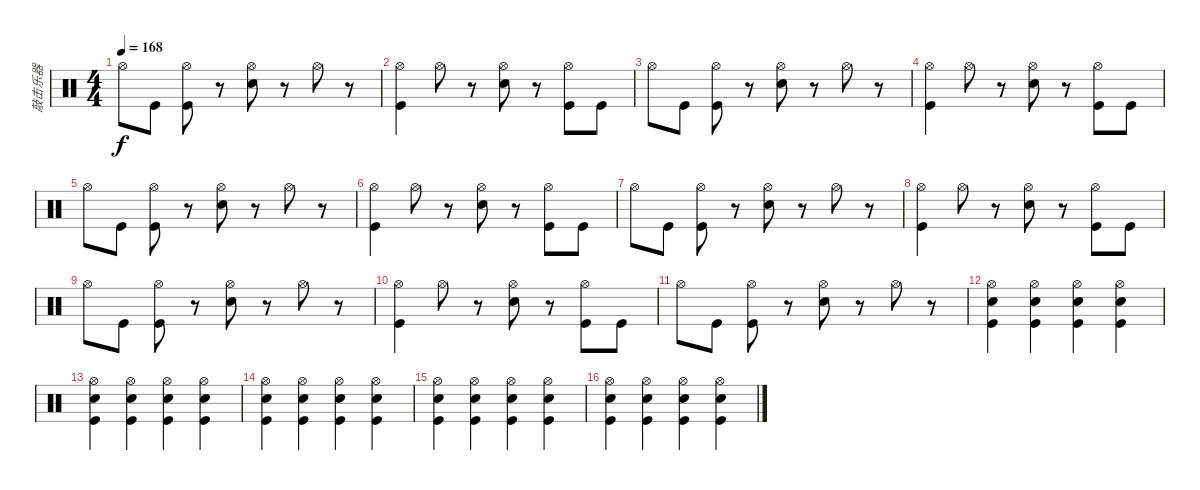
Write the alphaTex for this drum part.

\track ("敲击乐器" "敲击乐器") {instrument percussion}
\staff {score}
\articulation defaults
\ts (4 4)
\tempo 168
\clef neutral
\ks c "Hi-Hat (open)".8{dy f} "Kick (hit)".8
("Hi-Hat (open)" "Kick (hit)").8 r.8 ("Hi-Hat (open)" "Snare (hit) 2").8 r.8 "Hi-Hat (open)".8 r.8 |
("Hi-Hat (open)" "Kick (hit)").4 "Hi-Hat (open)".8 r.8 ("Hi-Hat (open)" "Snare (hit) 2").8 r.8 ("Hi-Hat (open)" "Kick (hit)").8 "Kick (hit)".8 |
"Hi-Hat (open)".8 "Kick (hit)".8 ("Hi-Hat (open)" "Kick (hit)").8 r.8 ("Hi-Hat (open)" "Snare (hit) 2").8 r.8 "Hi-Hat (open)".8 r.8 |
("Hi-Hat (open)" "Kick (hit)").4 "Hi-Hat (open)".8 r.8 ("Hi-Hat (open)" "Snare (hit) 2").8 r.8 ("Hi-Hat (open)" "Kick (hit)").8 "Kick (hit)".8 |
"Hi-Hat (open)".8 "Kick (hit)".8 ("Hi-Hat (open)" "Kick (hit)").8 r.8 ("Hi-Hat (open)" "Snare (hit) 2").8 r.8 "Hi-Hat (open)".8 r.8 |
("Hi-Hat (open)" "Kick (hit)").4 "Hi-Hat (open)".8 r.8 ("Hi-Hat (open)" "Snare (hit) 2").8 r.8 ("Hi-Hat (open)" "Kick (hit)").8 "Kick (hit)".8 |
"Hi-Hat (open)".8 "Kick (hit)".8 ("Hi-Hat (open)" "Kick (hit)").8 r.8 ("Hi-Hat (open)" "Snare (hit) 2").8 r.8 "Hi-Hat (open)".8 r.8 |
("Hi-Hat (open)" "Kick (hit)").4 "Hi-Hat (open)".8 r.8 ("Hi-Hat (open)" "Snare (hit) 2").8 r.8 ("Hi-Hat (open)" "Kick (hit)").8 "Kick (hit)".8 |
"Hi-Hat (open)".8 "Kick (hit)".8 ("Hi-Hat (open)" "Kick (hit)").8 r.8 ("Hi-Hat (open)" "Snare (hit) 2").8 r.8 "Hi-Hat (open)".8 r.8 |
("Hi-Hat (open)" "Kick (hit)").4 "Hi-Hat (open)".8 r.8 ("Hi-Hat (open)" "Snare (hit) 2").8 r.8 ("Hi-Hat (open)" "Kick (hit)").8 "Kick (hit)".8 |
"Hi-Hat (open)".8 "Kick (hit)".8 ("Hi-Hat (open)" "Kick (hit)").8 r.8 ("Hi-Hat (open)" "Snare (hit) 2").8 r.8 "Hi-Hat (open)".8 r.8 |
("Hi-Hat (open)" "Snare (hit) 2" "Kick (hit)").4 ("Hi-Hat (open)" "Snare (hit) 2" "Kick (hit)").4 ("Hi-Hat (open)" "Snare (hit) 2" "Kick (hit)").4 ("Hi-Hat (open)" "Snare (hit) 2" "Kick (hit)").4 |
("Hi-Hat (open)" "Snare (hit) 2" "Kick (hit)").4 ("Hi-Hat (open)" "Snare (hit) 2" "Kick (hit)").4 ("Hi-Hat (open)" "Snare (hit) 2" "Kick (hit)").4 ("Hi-Hat (open)" "Snare (hit) 2" "Kick (hit)").4 |
("Hi-Hat (open)" "Snare (hit) 2" "Kick (hit)").4 ("Hi-Hat (open)" "Snare (hit) 2" "Kick (hit)").4 ("Hi-Hat (open)" "Snare (hit) 2" "Kick (hit)").4 ("Hi-Hat (open)" "Snare (hit) 2" "Kick (hit)").4 |
("Hi-Hat (open)" "Snare (hit) 2" "Kick (hit)").4 ("Hi-Hat (open)" "Snare (hit) 2" "Kick (hit)").4 ("Hi-Hat (open)" "Snare (hit) 2" "Kick (hit)").4 ("Hi-Hat (open)" "Snare (hit) 2" "Kick (hit)").4 |
("Hi-Hat (open)" "Snare (hit) 2" "Kick (hit)").4 ("Hi-Hat (open)" "Snare (hit) 2" "Kick (hit)").4 ("Hi-Hat (open)" "Snare (hit) 2" "Kick (hit)").4 ("Hi-Hat (open)" "Snare (hit) 2" "Kick (hit)").4
